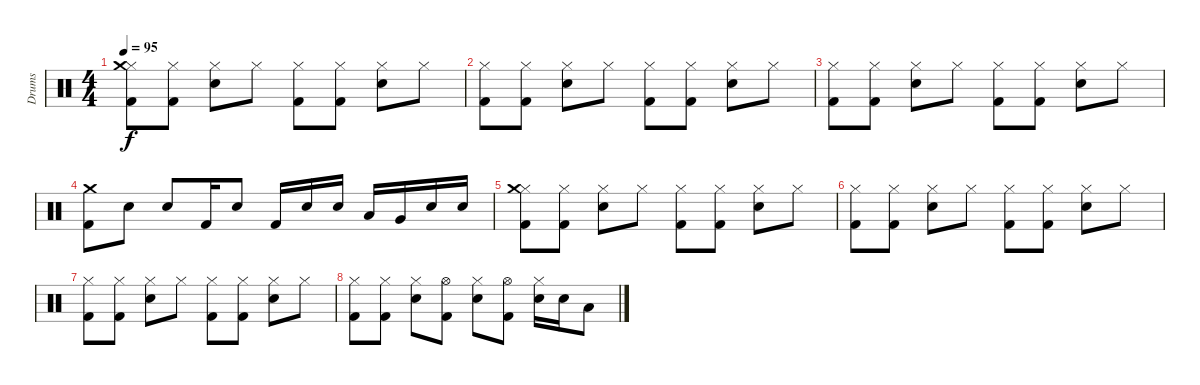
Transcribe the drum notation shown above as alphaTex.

\track ("Drums" "Drums") {instrument percussion}
\staff {score}
\articulation defaults
\ts (4 4)
\tempo 95
\clef neutral
\ks c
("Hi-Hat (closed)" "Crash medium (hit)" "Kick (hit) 2").8{dy f volume 4} ("Hi-Hat (closed)" "Kick (hit) 2").8 ("Hi-Hat (closed)" "Snare (hit) 2").8 "Hi-Hat (closed)".8 ("Hi-Hat (closed)" "Kick (hit) 2").8 ("Hi-Hat (closed)" "Kick (hit) 2").8 ("Hi-Hat (closed)" "Snare (hit) 2").8 "Hi-Hat (closed)".8 |
("Hi-Hat (closed)" "Kick (hit) 2").8 ("Hi-Hat (closed)" "Kick (hit) 2").8 ("Hi-Hat (closed)" "Snare (hit) 2").8 "Hi-Hat (closed)".8 ("Hi-Hat (closed)" "Kick (hit) 2").8 ("Hi-Hat (closed)" "Kick (hit) 2").8 ("Hi-Hat (closed)" "Snare (hit) 2").8 "Hi-Hat (closed)".8 |
("Hi-Hat (closed)" "Kick (hit) 2").8 ("Hi-Hat (closed)" "Kick (hit) 2").8 ("Hi-Hat (closed)" "Snare (hit) 2").8 "Hi-Hat (closed)".8 ("Hi-Hat (closed)" "Kick (hit) 2").8 ("Hi-Hat (closed)" "Kick (hit) 2").8 ("Hi-Hat (closed)" "Snare (hit) 2").8 "Hi-Hat (closed)".8 |
("Crash medium (hit)" "Kick (hit) 2").8 "Snare (hit) 2".8 "Snare (hit) 2".8 "Kick (hit) 2".16 "Snare (hit) 2".8 "Kick (hit) 2".16 "Snare (hit) 2".16 "Snare (hit) 2".16 "Low Tom (hit)".16 "Very Low Tom (hit)".16 "Snare (hit) 2".16 "Snare (hit) 2".16 |
("Hi-Hat (closed)" "Crash medium (hit)" "Kick (hit) 2").8{volume 4} ("Hi-Hat (closed)" "Kick (hit) 2").8{volume 0} ("Hi-Hat (closed)" "Snare (hit) 2").8 "Hi-Hat (closed)".8 ("Hi-Hat (closed)" "Kick (hit) 2").8 ("Hi-Hat (closed)" "Kick (hit) 2").8 ("Hi-Hat (closed)" "Snare (hit) 2").8 "Hi-Hat (closed)".8 |
("Hi-Hat (closed)" "Kick (hit) 2").8 ("Hi-Hat (closed)" "Kick (hit) 2").8 ("Hi-Hat (closed)" "Snare (hit) 2").8 "Hi-Hat (closed)".8 ("Hi-Hat (closed)" "Kick (hit) 2").8 ("Hi-Hat (closed)" "Kick (hit) 2").8 ("Hi-Hat (closed)" "Snare (hit) 2").8 "Hi-Hat (closed)".8 |
("Hi-Hat (closed)" "Kick (hit) 2").8 ("Hi-Hat (closed)" "Kick (hit) 2").8 ("Hi-Hat (closed)" "Snare (hit) 2").8 "Hi-Hat (closed)".8 ("Hi-Hat (closed)" "Kick (hit) 2").8 ("Hi-Hat (closed)" "Kick (hit) 2").8 ("Hi-Hat (closed)" "Snare (hit) 2").8 "Hi-Hat (closed)".8 |
("Hi-Hat (closed)" "Kick (hit) 2").8 ("Hi-Hat (closed)" "Kick (hit) 2").8 ("Hi-Hat (closed)" "Snare (hit) 2").8 ("Hi-Hat (open)" "Kick (hit) 2").8 ("Hi-Hat (closed)" "Snare (hit) 2").8 ("Hi-Hat (open)" "Kick (hit) 2").8 ("Hi-Hat (closed)" "Snare (hit) 2").16 "Snare (hit) 2".16 "Low Tom (hit)".8
